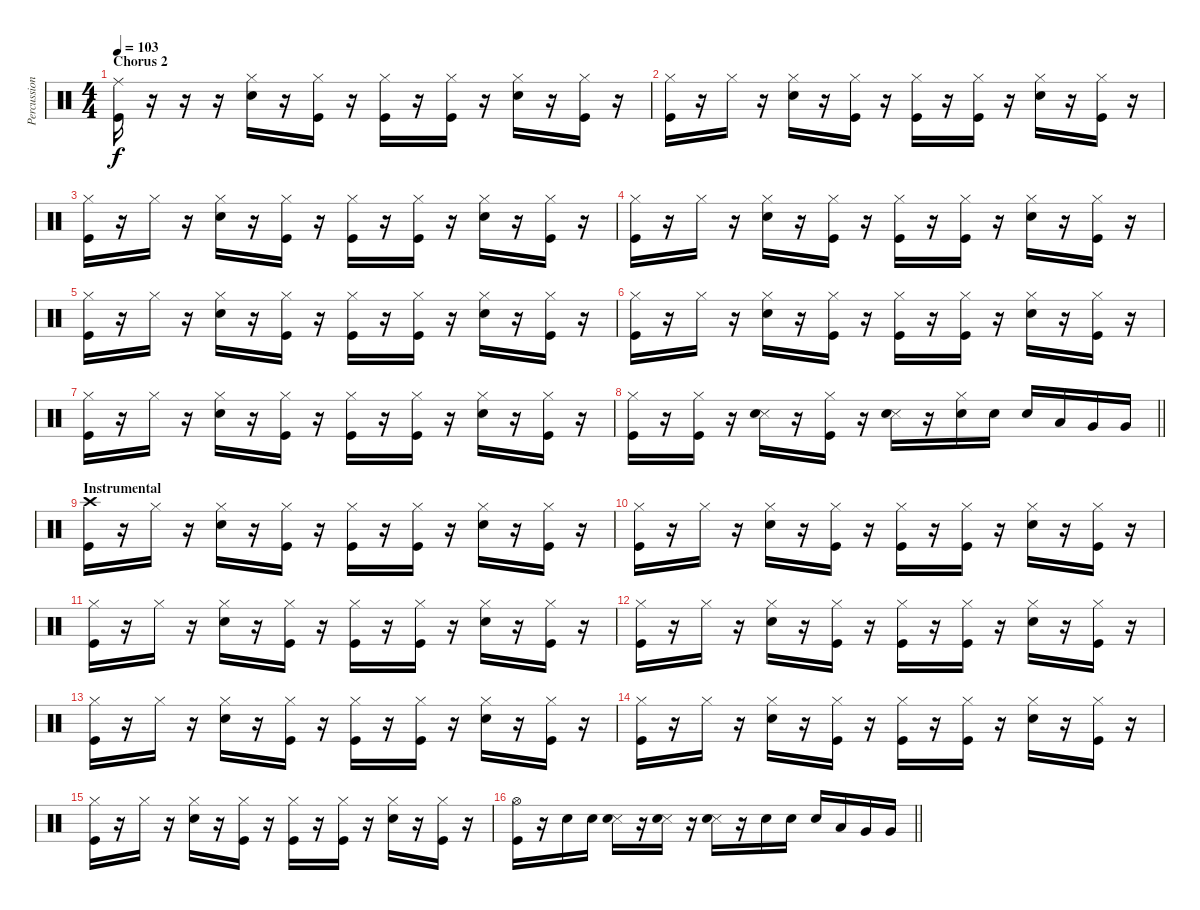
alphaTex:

\track ("Percussion" "Percussion") {instrument percussion}
\staff {score}
\articulation defaults
\ts (4 4)
\section ("" "Chorus 2")
\tempo 103
\clef neutral
\ks c
("Ride (middle)" "Kick (hit)").16{dy f} r.16 r.16 r.16 ("Hi-Hat (closed)" "Snare (hit) 2").16 r.16 ("Hi-Hat (closed)" "Kick (hit)").16 r.16 ("Hi-Hat (closed)" "Kick (hit)").16 r.16 ("Hi-Hat (closed)" "Kick (hit)").16 r.16 ("Hi-Hat (closed)" "Snare (hit) 2").16 r.16 ("Hi-Hat (closed)" "Kick (hit)").16 r.16 |
("Hi-Hat (closed)" "Kick (hit)").16 r.16 "Hi-Hat (closed)".16 r.16 ("Hi-Hat (closed)" "Snare (hit) 2").16 r.16 ("Hi-Hat (closed)" "Kick (hit)").16 r.16 ("Hi-Hat (closed)" "Kick (hit)").16 r.16 ("Hi-Hat (closed)" "Kick (hit)").16 r.16 ("Hi-Hat (closed)" "Snare (hit) 2").16 r.16 ("Hi-Hat (closed)" "Kick (hit)").16 r.16 |
("Hi-Hat (closed)" "Kick (hit)").16 r.16 "Hi-Hat (closed)".16 r.16 ("Hi-Hat (closed)" "Snare (hit) 2").16 r.16 ("Hi-Hat (closed)" "Kick (hit)").16 r.16 ("Hi-Hat (closed)" "Kick (hit)").16 r.16 ("Hi-Hat (closed)" "Kick (hit)").16 r.16 ("Hi-Hat (closed)" "Snare (hit) 2").16 r.16 ("Hi-Hat (closed)" "Kick (hit)").16 r.16 |
("Hi-Hat (closed)" "Kick (hit)").16 r.16 "Hi-Hat (closed)".16 r.16 ("Hi-Hat (closed)" "Snare (hit) 2").16 r.16 ("Hi-Hat (closed)" "Kick (hit)").16 r.16 ("Hi-Hat (closed)" "Kick (hit)").16 r.16 ("Hi-Hat (closed)" "Kick (hit)").16 r.16 ("Hi-Hat (closed)" "Snare (hit) 2").16 r.16 ("Hi-Hat (closed)" "Kick (hit)").16 r.16 |
("Hi-Hat (closed)" "Kick (hit)").16 r.16 "Hi-Hat (closed)".16 r.16 ("Hi-Hat (closed)" "Snare (hit) 2").16 r.16 ("Hi-Hat (closed)" "Kick (hit)").16 r.16 ("Hi-Hat (closed)" "Kick (hit)").16 r.16 ("Hi-Hat (closed)" "Kick (hit)").16 r.16 ("Hi-Hat (closed)" "Snare (hit) 2").16 r.16 ("Hi-Hat (closed)" "Kick (hit)").16 r.16 |
("Hi-Hat (closed)" "Kick (hit)").16 r.16 "Hi-Hat (closed)".16 r.16 ("Hi-Hat (closed)" "Snare (hit) 2").16 r.16 ("Hi-Hat (closed)" "Kick (hit)").16 r.16 ("Hi-Hat (closed)" "Kick (hit)").16 r.16 ("Hi-Hat (closed)" "Kick (hit)").16 r.16 ("Hi-Hat (closed)" "Snare (hit) 2").16 r.16 ("Hi-Hat (closed)" "Kick (hit)").16 r.16 |
("Hi-Hat (closed)" "Kick (hit)").16 r.16 "Hi-Hat (closed)".16 r.16 ("Hi-Hat (closed)" "Snare (hit) 2").16 r.16 ("Hi-Hat (closed)" "Kick (hit)").16 r.16 ("Hi-Hat (closed)" "Kick (hit)").16 r.16 ("Hi-Hat (closed)" "Kick (hit)").16 r.16 ("Hi-Hat (closed)" "Snare (hit) 2").16 r.16 ("Hi-Hat (closed)" "Kick (hit)").16 r.16 |
\barLineRight lightlight
("Hi-Hat (closed)" "Kick (hit)").16 r.16 ("Hi-Hat (closed)" "Kick (hit)").16 r.16 ("Snare (side stick) 3" "Snare (hit) 2").16 r.16 ("Hi-Hat (closed)" "Kick (hit)").16 r.16 ("Snare (side stick) 3" "Snare (hit) 2").16 r.16 ("Hi-Hat (closed)" "Snare (hit) 2").16 "Snare (hit) 2".16 "Snare (hit) 2".16 "Low Tom (hit)".16 "Very Low Tom (hit)".16 "Very Low Tom (hit)".16 |
\section ("" "Instrumental")
("Crash high (hit)" "Kick (hit)").16 r.16 "Hi-Hat (closed)".16 r.16 ("Hi-Hat (closed)" "Snare (hit) 2").16 r.16 ("Hi-Hat (closed)" "Kick (hit)").16 r.16 ("Hi-Hat (closed)" "Kick (hit)").16 r.16 ("Hi-Hat (closed)" "Kick (hit)").16 r.16 ("Hi-Hat (closed)" "Snare (hit) 2").16 r.16 ("Hi-Hat (closed)" "Kick (hit)").16 r.16 |
("Hi-Hat (closed)" "Kick (hit)").16 r.16 "Hi-Hat (closed)".16 r.16 ("Hi-Hat (closed)" "Snare (hit) 2").16 r.16 ("Hi-Hat (closed)" "Kick (hit)").16 r.16 ("Hi-Hat (closed)" "Kick (hit)").16 r.16 ("Hi-Hat (closed)" "Kick (hit)").16 r.16 ("Hi-Hat (closed)" "Snare (hit) 2").16 r.16 ("Hi-Hat (closed)" "Kick (hit)").16 r.16 |
("Hi-Hat (closed)" "Kick (hit)").16 r.16 "Hi-Hat (closed)".16 r.16 ("Hi-Hat (closed)" "Snare (hit) 2").16 r.16 ("Hi-Hat (closed)" "Kick (hit)").16 r.16 ("Hi-Hat (closed)" "Kick (hit)").16 r.16 ("Hi-Hat (closed)" "Kick (hit)").16 r.16 ("Hi-Hat (closed)" "Snare (hit) 2").16 r.16 ("Hi-Hat (closed)" "Kick (hit)").16 r.16 |
("Hi-Hat (closed)" "Kick (hit)").16 r.16 "Hi-Hat (closed)".16 r.16 ("Hi-Hat (closed)" "Snare (hit) 2").16 r.16 ("Hi-Hat (closed)" "Kick (hit)").16 r.16 ("Hi-Hat (closed)" "Kick (hit)").16 r.16 ("Hi-Hat (closed)" "Kick (hit)").16 r.16 ("Hi-Hat (closed)" "Snare (hit) 2").16 r.16 ("Hi-Hat (closed)" "Kick (hit)").16 r.16 |
("Hi-Hat (closed)" "Kick (hit)").16 r.16 "Hi-Hat (closed)".16 r.16 ("Hi-Hat (closed)" "Snare (hit) 2").16 r.16 ("Hi-Hat (closed)" "Kick (hit)").16 r.16 ("Hi-Hat (closed)" "Kick (hit)").16 r.16 ("Hi-Hat (closed)" "Kick (hit)").16 r.16 ("Hi-Hat (closed)" "Snare (hit) 2").16 r.16 ("Hi-Hat (closed)" "Kick (hit)").16 r.16 |
("Hi-Hat (closed)" "Kick (hit)").16 r.16 "Hi-Hat (closed)".16 r.16 ("Hi-Hat (closed)" "Snare (hit) 2").16 r.16 ("Hi-Hat (closed)" "Kick (hit)").16 r.16 ("Hi-Hat (closed)" "Kick (hit)").16 r.16 ("Hi-Hat (closed)" "Kick (hit)").16 r.16 ("Hi-Hat (closed)" "Snare (hit) 2").16 r.16 ("Hi-Hat (closed)" "Kick (hit)").16 r.16 |
("Hi-Hat (closed)" "Kick (hit)").16 r.16 "Hi-Hat (closed)".16 r.16 ("Hi-Hat (closed)" "Snare (hit) 2").16 r.16 ("Hi-Hat (closed)" "Kick (hit)").16 r.16 ("Hi-Hat (closed)" "Kick (hit)").16 r.16 ("Hi-Hat (closed)" "Kick (hit)").16 r.16 ("Hi-Hat (closed)" "Snare (hit) 2").16 r.16 ("Hi-Hat (closed)" "Kick (hit)").16 r.16 |
\barLineRight lightlight
("Hi-Hat (open)" "Kick (hit)").16 r.16 "Snare (hit) 2".16 "Snare (hit) 2".16 ("Snare (side stick) 3" "Snare (hit) 2").16 r.16 ("Snare (side stick) 3" "Snare (hit) 2").16 r.16 ("Snare (side stick) 3" "Snare (hit) 2").16 r.16 "Snare (hit) 2".16 "Snare (hit) 2".16 "Snare (hit) 2".16 "Low Tom (hit)".16 "Very Low Tom (hit)".16 "Very Low Tom (hit)".16
